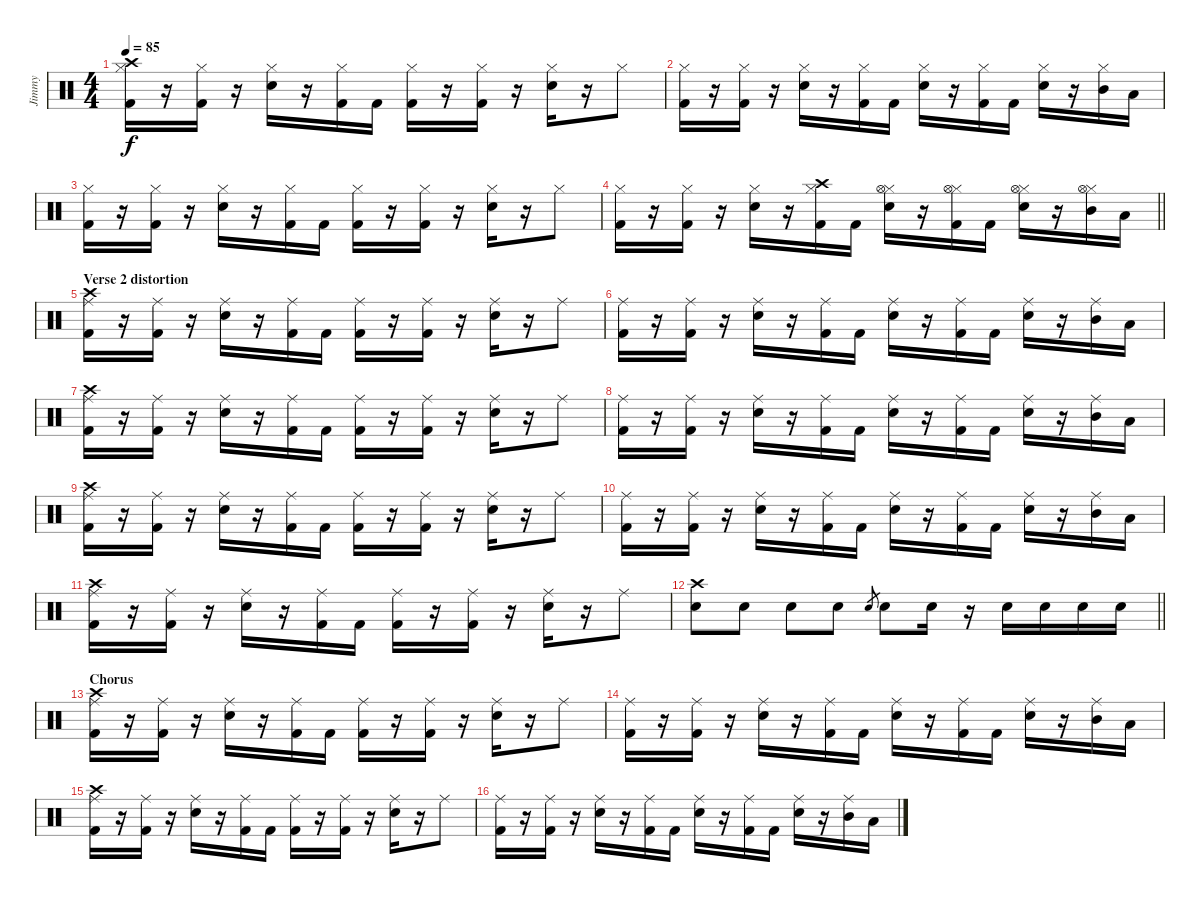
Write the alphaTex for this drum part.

\track ("Jimmy" "Jimmy") {instrument percussion}
\staff {score}
\articulation defaults
\ts (4 4)
\tempo 85
\clef neutral
\ks c
("Hi-Hat (closed)" "Crash high (hit)" "Kick (hit) 2").16{dy f} r.16 ("Hi-Hat (closed)" "Kick (hit) 2").16 r.16 ("Hi-Hat (closed)" "Electric Snare (hit)").16 r.16 ("Hi-Hat (closed)" "Kick (hit) 2").16 "Kick (hit) 2".16 ("Hi-Hat (closed)" "Kick (hit) 2").16 r.16 ("Hi-Hat (closed)" "Kick (hit) 2").16 r.16 ("Hi-Hat (closed)" "Electric Snare (hit)").16 r.16 "Hi-Hat (closed)".8 |
("Hi-Hat (closed)" "Kick (hit) 2").16 r.16 ("Hi-Hat (closed)" "Kick (hit) 2").16 r.16 ("Hi-Hat (closed)" "Electric Snare (hit)").16 r.16 ("Hi-Hat (closed)" "Kick (hit) 2").16 "Kick (hit) 2".16 ("Hi-Hat (closed)" "Electric Snare (hit)").16 r.16 ("Hi-Hat (closed)" "Kick (hit) 2").16 "Kick (hit) 2".16 ("Hi-Hat (closed)" "Electric Snare (hit)").16 r.16 ("Hi-Hat (closed)" "Mid Tom (hit)").16 "Low Tom (hit)".16 |
("Hi-Hat (closed)" "Kick (hit) 2").16 r.16 ("Hi-Hat (closed)" "Kick (hit) 2").16 r.16 ("Hi-Hat (closed)" "Electric Snare (hit)").16 r.16 ("Hi-Hat (closed)" "Kick (hit) 2").16 "Kick (hit) 2".16 ("Hi-Hat (closed)" "Kick (hit) 2").16 r.16 ("Hi-Hat (closed)" "Kick (hit) 2").16 r.16 ("Hi-Hat (closed)" "Electric Snare (hit)").16 r.16 "Hi-Hat (closed)".8 |
\barLineRight lightlight
("Hi-Hat (closed)" "Kick (hit) 2").16 r.16 ("Hi-Hat (closed)" "Kick (hit) 2").16 r.16 ("Hi-Hat (closed)" "Electric Snare (hit)").16 r.16 ("Hi-Hat (closed)" "Crash high (hit)" "Kick (hit) 2").16 "Kick (hit) 2".16 ("Hi-Hat (closed)" "Hi-Hat (open)" "Electric Snare (hit)").16 r.16 ("Hi-Hat (closed)" "Hi-Hat (open)" "Kick (hit) 2").16 "Kick (hit) 2".16 ("Hi-Hat (closed)" "Hi-Hat (open)" "Electric Snare (hit)").16 r.16 ("Hi-Hat (closed)" "Hi-Hat (open)" "Mid Tom (hit)").16 "Low Tom (hit)".16 |
\section ("" "Verse 2 distortion")
("Ride (middle)" "Crash high (hit)" "Kick (hit) 2").16 r.16 ("Ride (middle)" "Kick (hit) 2").16 r.16 ("Ride (middle)" "Electric Snare (hit)").16 r.16 ("Ride (middle)" "Kick (hit) 2").16 "Kick (hit) 2".16 ("Ride (middle)" "Kick (hit) 2").16 r.16 ("Ride (middle)" "Kick (hit) 2").16 r.16 ("Ride (middle)" "Electric Snare (hit)").16 r.16 "Ride (middle)".8 |
("Ride (middle)" "Kick (hit) 2").16 r.16 ("Ride (middle)" "Kick (hit) 2").16 r.16 ("Ride (middle)" "Electric Snare (hit)").16 r.16 ("Ride (middle)" "Kick (hit) 2").16 "Kick (hit) 2".16 ("Ride (middle)" "Electric Snare (hit)").16 r.16 ("Ride (middle)" "Kick (hit) 2").16 "Kick (hit) 2".16 ("Ride (middle)" "Electric Snare (hit)").16 r.16 ("Ride (middle)" "Mid Tom (hit)").16 "Low Tom (hit)".16 |
("Ride (middle)" "Crash high (hit)" "Kick (hit) 2").16 r.16 ("Ride (middle)" "Kick (hit) 2").16 r.16 ("Ride (middle)" "Electric Snare (hit)").16 r.16 ("Ride (middle)" "Kick (hit) 2").16 "Kick (hit) 2".16 ("Ride (middle)" "Kick (hit) 2").16 r.16 ("Ride (middle)" "Kick (hit) 2").16 r.16 ("Ride (middle)" "Electric Snare (hit)").16 r.16 "Ride (middle)".8 |
("Ride (middle)" "Kick (hit) 2").16 r.16 ("Ride (middle)" "Kick (hit) 2").16 r.16 ("Ride (middle)" "Electric Snare (hit)").16 r.16 ("Ride (middle)" "Kick (hit) 2").16 "Kick (hit) 2".16 ("Ride (middle)" "Electric Snare (hit)").16 r.16 ("Ride (middle)" "Kick (hit) 2").16 "Kick (hit) 2".16 ("Ride (middle)" "Electric Snare (hit)").16 r.16 ("Ride (middle)" "Mid Tom (hit)").16 "Low Tom (hit)".16 |
("Ride (middle)" "Crash high (hit)" "Kick (hit) 2").16 r.16 ("Ride (middle)" "Kick (hit) 2").16 r.16 ("Ride (middle)" "Electric Snare (hit)").16 r.16 ("Ride (middle)" "Kick (hit) 2").16 "Kick (hit) 2".16 ("Ride (middle)" "Kick (hit) 2").16 r.16 ("Ride (middle)" "Kick (hit) 2").16 r.16 ("Ride (middle)" "Electric Snare (hit)").16 r.16 "Ride (middle)".8 |
("Ride (middle)" "Kick (hit) 2").16 r.16 ("Ride (middle)" "Kick (hit) 2").16 r.16 ("Ride (middle)" "Electric Snare (hit)").16 r.16 ("Ride (middle)" "Kick (hit) 2").16 "Kick (hit) 2".16 ("Ride (middle)" "Electric Snare (hit)").16 r.16 ("Ride (middle)" "Kick (hit) 2").16 "Kick (hit) 2".16 ("Ride (middle)" "Electric Snare (hit)").16 r.16 ("Ride (middle)" "Mid Tom (hit)").16 "Low Tom (hit)".16 |
("Ride (middle)" "Crash high (hit)" "Kick (hit) 2").16 r.16 ("Ride (middle)" "Kick (hit) 2").16 r.16 ("Ride (middle)" "Electric Snare (hit)").16 r.16 ("Ride (middle)" "Kick (hit) 2").16 "Kick (hit) 2".16 ("Ride (middle)" "Kick (hit) 2").16 r.16 ("Ride (middle)" "Kick (hit) 2").16 r.16 ("Ride (middle)" "Electric Snare (hit)").16 r.16 "Ride (middle)".8 |
\barLineRight lightlight
("Crash high (hit)" "Electric Snare (hit)").8 "Electric Snare (hit)".8 "Electric Snare (hit)".8 "Electric Snare (hit)".8 "Electric Snare (hit)".8{gr} "Electric Snare (hit)".8 "Electric Snare (hit)".16 r.16 "Electric Snare (hit)".16 "Electric Snare (hit)".16 "Electric Snare (hit)".16 "Electric Snare (hit)".16 |
\section ("" "Chorus")
("Ride (middle)" "Crash high (hit)" "Kick (hit) 2").16 r.16 ("Ride (middle)" "Kick (hit) 2").16 r.16 ("Ride (middle)" "Electric Snare (hit)").16 r.16 ("Ride (middle)" "Kick (hit) 2").16 "Kick (hit) 2".16 ("Ride (middle)" "Kick (hit) 2").16 r.16 ("Ride (middle)" "Kick (hit) 2").16 r.16 ("Ride (middle)" "Electric Snare (hit)").16 r.16 "Ride (middle)".8 |
("Ride (middle)" "Kick (hit) 2").16 r.16 ("Ride (middle)" "Kick (hit) 2").16 r.16 ("Ride (middle)" "Electric Snare (hit)").16 r.16 ("Ride (middle)" "Kick (hit) 2").16 "Kick (hit) 2".16 ("Ride (middle)" "Electric Snare (hit)").16 r.16 ("Ride (middle)" "Kick (hit) 2").16 "Kick (hit) 2".16 ("Ride (middle)" "Electric Snare (hit)").16 r.16 ("Ride (middle)" "Mid Tom (hit)").16 "Low Tom (hit)".16 |
("Ride (middle)" "Crash high (hit)" "Kick (hit) 2").16 r.16 ("Ride (middle)" "Kick (hit) 2").16 r.16 ("Ride (middle)" "Electric Snare (hit)").16 r.16 ("Ride (middle)" "Kick (hit) 2").16 "Kick (hit) 2".16 ("Ride (middle)" "Kick (hit) 2").16 r.16 ("Ride (middle)" "Kick (hit) 2").16 r.16 ("Ride (middle)" "Electric Snare (hit)").16 r.16 "Ride (middle)".8 |
("Ride (middle)" "Kick (hit) 2").16 r.16 ("Ride (middle)" "Kick (hit) 2").16 r.16 ("Ride (middle)" "Electric Snare (hit)").16 r.16 ("Ride (middle)" "Kick (hit) 2").16 "Kick (hit) 2".16 ("Ride (middle)" "Electric Snare (hit)").16 r.16 ("Ride (middle)" "Kick (hit) 2").16 "Kick (hit) 2".16 ("Ride (middle)" "Electric Snare (hit)").16 r.16 ("Ride (middle)" "Mid Tom (hit)").16 "Low Tom (hit)".16
